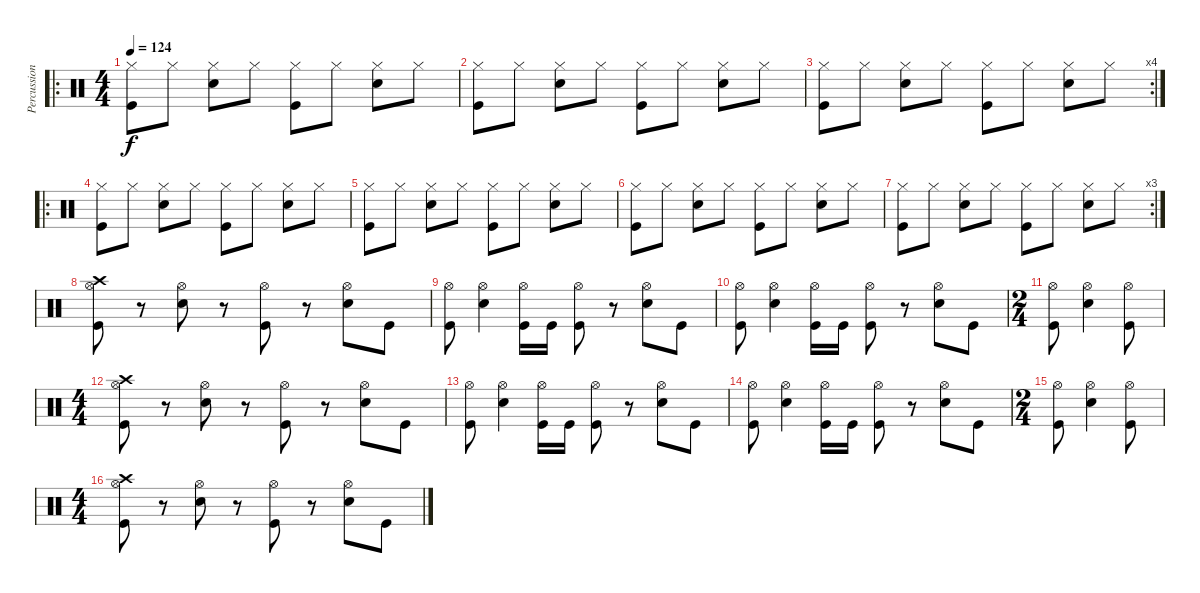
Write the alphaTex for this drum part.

\track ("Percussions" "Percussion") {instrument percussion}
\staff {score}
\articulation defaults
\ro
\ts (4 4)
\tempo 124
\clef neutral
\ks c
("Hi-Hat (closed)" "Kick (hit)").8{dy f} "Hi-Hat (closed)".8 ("Hi-Hat (closed)" "Electric Snare (hit)").8 "Hi-Hat (closed)".8 ("Hi-Hat (closed)" "Kick (hit)").8 "Hi-Hat (closed)".8 ("Hi-Hat (closed)" "Electric Snare (hit)").8 "Hi-Hat (closed)".8 |
("Hi-Hat (closed)" "Kick (hit)").8 "Hi-Hat (closed)".8 ("Hi-Hat (closed)" "Electric Snare (hit)").8 "Hi-Hat (closed)".8 ("Hi-Hat (closed)" "Kick (hit)").8 "Hi-Hat (closed)".8 ("Hi-Hat (closed)" "Electric Snare (hit)").8 "Hi-Hat (closed)".8 |
\rc 4
("Hi-Hat (closed)" "Kick (hit)").8 "Hi-Hat (closed)".8 ("Hi-Hat (closed)" "Electric Snare (hit)").8 "Hi-Hat (closed)".8 ("Hi-Hat (closed)" "Kick (hit)").8 "Hi-Hat (closed)".8 ("Hi-Hat (closed)" "Electric Snare (hit)").8 "Hi-Hat (closed)".8 |
\ro
("Hi-Hat (closed)" "Kick (hit)").8 "Hi-Hat (closed)".8 ("Hi-Hat (closed)" "Electric Snare (hit)").8 "Hi-Hat (closed)".8 ("Hi-Hat (closed)" "Kick (hit)").8 "Hi-Hat (closed)".8 ("Hi-Hat (closed)" "Electric Snare (hit)").8 "Hi-Hat (closed)".8 |
("Hi-Hat (closed)" "Kick (hit)").8 "Hi-Hat (closed)".8 ("Hi-Hat (closed)" "Electric Snare (hit)").8 "Hi-Hat (closed)".8 ("Hi-Hat (closed)" "Kick (hit)").8 "Hi-Hat (closed)".8 ("Hi-Hat (closed)" "Electric Snare (hit)").8 "Hi-Hat (closed)".8 |
("Hi-Hat (closed)" "Kick (hit)").8 "Hi-Hat (closed)".8 ("Hi-Hat (closed)" "Electric Snare (hit)").8 "Hi-Hat (closed)".8 ("Hi-Hat (closed)" "Kick (hit)").8 "Hi-Hat (closed)".8 ("Hi-Hat (closed)" "Electric Snare (hit)").8 "Hi-Hat (closed)".8 |
\rc 3
("Hi-Hat (closed)" "Kick (hit)").8 "Hi-Hat (closed)".8 ("Hi-Hat (closed)" "Electric Snare (hit)").8 "Hi-Hat (closed)".8 ("Hi-Hat (closed)" "Kick (hit)").8 "Hi-Hat (closed)".8 ("Hi-Hat (closed)" "Electric Snare (hit)").8 "Hi-Hat (closed)".8 |
("Hi-Hat (open)" "Kick (hit)" "Crash high (hit)").8 r.8 ("Hi-Hat (open)" "Electric Snare (hit)").8 r.8 ("Hi-Hat (open)" "Kick (hit)").8 r.8 ("Hi-Hat (open)" "Electric Snare (hit)").8 "Kick (hit)".8 |
("Hi-Hat (open)" "Kick (hit)").8 ("Hi-Hat (open)" "Electric Snare (hit)").4 ("Hi-Hat (open)" "Kick (hit)").16 "Kick (hit)".16 ("Hi-Hat (open)" "Kick (hit)").8 r.8 ("Hi-Hat (open)" "Electric Snare (hit)").8 "Kick (hit)".8 |
("Hi-Hat (open)" "Kick (hit)").8 ("Hi-Hat (open)" "Electric Snare (hit)").4 ("Hi-Hat (open)" "Kick (hit)").16 "Kick (hit)".16 ("Hi-Hat (open)" "Kick (hit)").8 r.8 ("Hi-Hat (open)" "Electric Snare (hit)").8 "Kick (hit)".8 |
\ts (2 4)
("Hi-Hat (open)" "Kick (hit)").8 ("Hi-Hat (open)" "Electric Snare (hit)").4 ("Hi-Hat (open)" "Kick (hit)").8 |
\ts (4 4)
("Hi-Hat (open)" "Kick (hit)" "Crash high (hit)").8 r.8 ("Hi-Hat (open)" "Electric Snare (hit)").8 r.8 ("Hi-Hat (open)" "Kick (hit)").8 r.8 ("Hi-Hat (open)" "Electric Snare (hit)").8 "Kick (hit)".8 |
("Hi-Hat (open)" "Kick (hit)").8 ("Hi-Hat (open)" "Electric Snare (hit)").4 ("Hi-Hat (open)" "Kick (hit)").16 "Kick (hit)".16 ("Hi-Hat (open)" "Kick (hit)").8 r.8 ("Hi-Hat (open)" "Electric Snare (hit)").8 "Kick (hit)".8 |
("Hi-Hat (open)" "Kick (hit)").8 ("Hi-Hat (open)" "Electric Snare (hit)").4 ("Hi-Hat (open)" "Kick (hit)").16 "Kick (hit)".16 ("Hi-Hat (open)" "Kick (hit)").8 r.8 ("Hi-Hat (open)" "Electric Snare (hit)").8 "Kick (hit)".8 |
\ts (2 4)
("Hi-Hat (open)" "Kick (hit)").8 ("Hi-Hat (open)" "Electric Snare (hit)").4 ("Hi-Hat (open)" "Kick (hit)").8 |
\ts (4 4)
("Hi-Hat (open)" "Kick (hit)" "Crash high (hit)").8 r.8 ("Hi-Hat (open)" "Electric Snare (hit)").8 r.8 ("Hi-Hat (open)" "Kick (hit)").8 r.8 ("Hi-Hat (open)" "Electric Snare (hit)").8 "Kick (hit)".8
